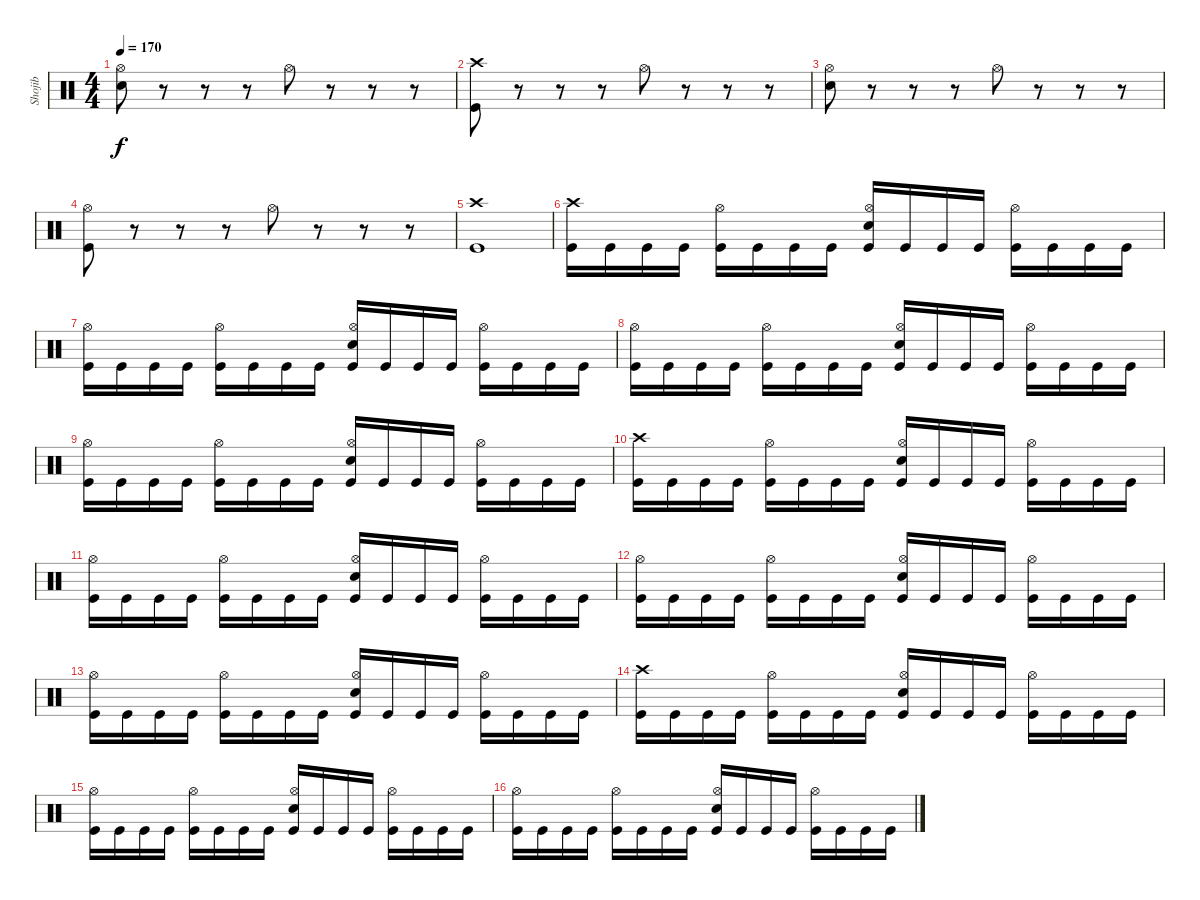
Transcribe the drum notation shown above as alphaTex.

\track ("Shojib" "Shojib") {instrument percussion}
\staff {score}
\articulation defaults
\ts (4 4)
\tempo 170
\clef neutral
\ks c
("Electric Snare (hit)" "Hi-Hat (open)").8{dy f} r.8 r.8 r.8 "Hi-Hat (open)".8 r.8 r.8 r.8 |
("Crash high (hit)" "Kick (hit)").8 r.8 r.8 r.8 "Hi-Hat (open)".8 r.8 r.8 r.8 |
("Electric Snare (hit)" "Hi-Hat (open)").8 r.8 r.8 r.8 "Hi-Hat (open)".8 r.8 r.8 r.8 |
("Hi-Hat (open)" "Kick (hit)").8 r.8 r.8 r.8 "Hi-Hat (open)".8 r.8 r.8 r.8 |
("Crash high (hit)" "Kick (hit)").1 |
("Crash high (hit)" "Kick (hit)").16 "Kick (hit)".16 "Kick (hit)".16 "Kick (hit)".16 ("Hi-Hat (open)" "Kick (hit)").16 "Kick (hit)".16 "Kick (hit)".16 "Kick (hit)".16 ("Hi-Hat (open)" "Electric Snare (hit)" "Kick (hit)").16 "Kick (hit)".16 "Kick (hit)".16 "Kick (hit)".16 ("Hi-Hat (open)" "Kick (hit)").16 "Kick (hit)".16 "Kick (hit)".16 "Kick (hit)".16 |
("Hi-Hat (open)" "Kick (hit)").16 "Kick (hit)".16 "Kick (hit)".16 "Kick (hit)".16 ("Hi-Hat (open)" "Kick (hit)").16 "Kick (hit)".16 "Kick (hit)".16 "Kick (hit)".16 ("Hi-Hat (open)" "Electric Snare (hit)" "Kick (hit)").16 "Kick (hit)".16 "Kick (hit)".16 "Kick (hit)".16 ("Hi-Hat (open)" "Kick (hit)").16 "Kick (hit)".16 "Kick (hit)".16 "Kick (hit)".16 |
("Hi-Hat (open)" "Kick (hit)").16 "Kick (hit)".16 "Kick (hit)".16 "Kick (hit)".16 ("Hi-Hat (open)" "Kick (hit)").16 "Kick (hit)".16 "Kick (hit)".16 "Kick (hit)".16 ("Hi-Hat (open)" "Electric Snare (hit)" "Kick (hit)").16 "Kick (hit)".16 "Kick (hit)".16 "Kick (hit)".16 ("Hi-Hat (open)" "Kick (hit)").16 "Kick (hit)".16 "Kick (hit)".16 "Kick (hit)".16 |
("Hi-Hat (open)" "Kick (hit)").16 "Kick (hit)".16 "Kick (hit)".16 "Kick (hit)".16 ("Hi-Hat (open)" "Kick (hit)").16 "Kick (hit)".16 "Kick (hit)".16 "Kick (hit)".16 ("Hi-Hat (open)" "Electric Snare (hit)" "Kick (hit)").16 "Kick (hit)".16 "Kick (hit)".16 "Kick (hit)".16 ("Hi-Hat (open)" "Kick (hit)").16 "Kick (hit)".16 "Kick (hit)".16 "Kick (hit)".16 |
("Crash high (hit)" "Kick (hit)").16 "Kick (hit)".16 "Kick (hit)".16 "Kick (hit)".16 ("Hi-Hat (open)" "Kick (hit)").16 "Kick (hit)".16 "Kick (hit)".16 "Kick (hit)".16 ("Hi-Hat (open)" "Electric Snare (hit)" "Kick (hit)").16 "Kick (hit)".16 "Kick (hit)".16 "Kick (hit)".16 ("Hi-Hat (open)" "Kick (hit)").16 "Kick (hit)".16 "Kick (hit)".16 "Kick (hit)".16 |
("Hi-Hat (open)" "Kick (hit)").16 "Kick (hit)".16 "Kick (hit)".16 "Kick (hit)".16 ("Hi-Hat (open)" "Kick (hit)").16 "Kick (hit)".16 "Kick (hit)".16 "Kick (hit)".16 ("Hi-Hat (open)" "Electric Snare (hit)" "Kick (hit)").16 "Kick (hit)".16 "Kick (hit)".16 "Kick (hit)".16 ("Hi-Hat (open)" "Kick (hit)").16 "Kick (hit)".16 "Kick (hit)".16 "Kick (hit)".16 |
("Hi-Hat (open)" "Kick (hit)").16 "Kick (hit)".16 "Kick (hit)".16 "Kick (hit)".16 ("Hi-Hat (open)" "Kick (hit)").16 "Kick (hit)".16 "Kick (hit)".16 "Kick (hit)".16 ("Hi-Hat (open)" "Electric Snare (hit)" "Kick (hit)").16 "Kick (hit)".16 "Kick (hit)".16 "Kick (hit)".16 ("Hi-Hat (open)" "Kick (hit)").16 "Kick (hit)".16 "Kick (hit)".16 "Kick (hit)".16 |
("Hi-Hat (open)" "Kick (hit)").16 "Kick (hit)".16 "Kick (hit)".16 "Kick (hit)".16 ("Hi-Hat (open)" "Kick (hit)").16 "Kick (hit)".16 "Kick (hit)".16 "Kick (hit)".16 ("Hi-Hat (open)" "Electric Snare (hit)" "Kick (hit)").16 "Kick (hit)".16 "Kick (hit)".16 "Kick (hit)".16 ("Hi-Hat (open)" "Kick (hit)").16 "Kick (hit)".16 "Kick (hit)".16 "Kick (hit)".16 |
("Crash high (hit)" "Kick (hit)").16 "Kick (hit)".16 "Kick (hit)".16 "Kick (hit)".16 ("Hi-Hat (open)" "Kick (hit)").16 "Kick (hit)".16 "Kick (hit)".16 "Kick (hit)".16 ("Hi-Hat (open)" "Electric Snare (hit)" "Kick (hit)").16 "Kick (hit)".16 "Kick (hit)".16 "Kick (hit)".16 ("Hi-Hat (open)" "Kick (hit)").16 "Kick (hit)".16 "Kick (hit)".16 "Kick (hit)".16 |
("Hi-Hat (open)" "Kick (hit)").16 "Kick (hit)".16 "Kick (hit)".16 "Kick (hit)".16 ("Hi-Hat (open)" "Kick (hit)").16 "Kick (hit)".16 "Kick (hit)".16 "Kick (hit)".16 ("Hi-Hat (open)" "Electric Snare (hit)" "Kick (hit)").16 "Kick (hit)".16 "Kick (hit)".16 "Kick (hit)".16 ("Hi-Hat (open)" "Kick (hit)").16 "Kick (hit)".16 "Kick (hit)".16 "Kick (hit)".16 |
("Hi-Hat (open)" "Kick (hit)").16 "Kick (hit)".16 "Kick (hit)".16 "Kick (hit)".16 ("Hi-Hat (open)" "Kick (hit)").16 "Kick (hit)".16 "Kick (hit)".16 "Kick (hit)".16 ("Hi-Hat (open)" "Electric Snare (hit)" "Kick (hit)").16 "Kick (hit)".16 "Kick (hit)".16 "Kick (hit)".16 ("Hi-Hat (open)" "Kick (hit)").16 "Kick (hit)".16 "Kick (hit)".16 "Kick (hit)".16
